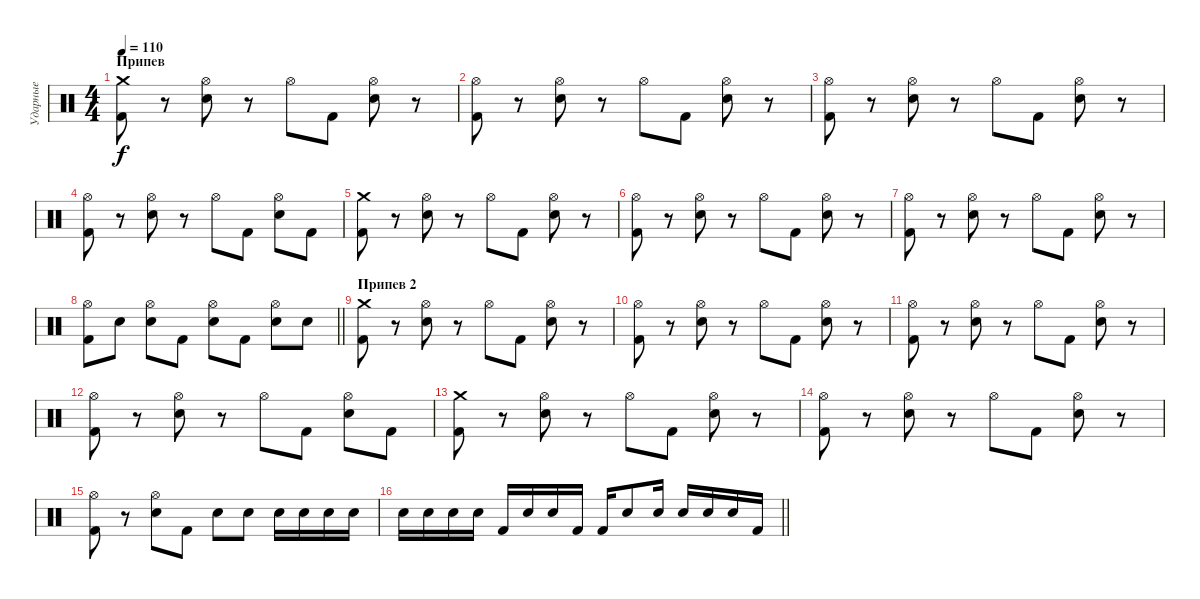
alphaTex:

\track ("Ударные" "Ударные") {instrument percussion}
\staff {score}
\articulation defaults
\ts (4 4)
\section ("" "Припев")
\tempo 110
\clef neutral
\ks c
("Crash medium (hit)" "Kick (hit) 2").8{dy f} r.8 ("Hi-Hat (open)" "Snare (hit) 2").8 r.8 "Hi-Hat (open)".8 "Kick (hit) 2".8 ("Hi-Hat (open)" "Snare (hit) 2").8 r.8 |
("Hi-Hat (open)" "Kick (hit) 2").8 r.8 ("Hi-Hat (open)" "Snare (hit) 2").8 r.8 "Hi-Hat (open)".8 "Kick (hit) 2".8 ("Hi-Hat (open)" "Snare (hit) 2").8 r.8 |
("Hi-Hat (open)" "Kick (hit) 2").8 r.8 ("Hi-Hat (open)" "Snare (hit) 2").8 r.8 "Hi-Hat (open)".8 "Kick (hit) 2".8 ("Hi-Hat (open)" "Snare (hit) 2").8 r.8 |
("Hi-Hat (open)" "Kick (hit) 2").8 r.8 ("Hi-Hat (open)" "Snare (hit) 2").8 r.8 "Hi-Hat (open)".8 "Kick (hit) 2".8 ("Hi-Hat (open)" "Snare (hit) 2").8 "Kick (hit) 2".8 |
("Crash medium (hit)" "Kick (hit) 2").8 r.8 ("Hi-Hat (open)" "Snare (hit) 2").8 r.8 "Hi-Hat (open)".8 "Kick (hit) 2".8 ("Hi-Hat (open)" "Snare (hit) 2").8 r.8 |
("Hi-Hat (open)" "Kick (hit) 2").8 r.8 ("Hi-Hat (open)" "Snare (hit) 2").8 r.8 "Hi-Hat (open)".8 "Kick (hit) 2".8 ("Hi-Hat (open)" "Snare (hit) 2").8 r.8 |
("Hi-Hat (open)" "Kick (hit) 2").8 r.8 ("Hi-Hat (open)" "Snare (hit) 2").8 r.8 "Hi-Hat (open)".8 "Kick (hit) 2".8 ("Hi-Hat (open)" "Snare (hit) 2").8 r.8 |
\barLineRight lightlight
("Hi-Hat (open)" "Kick (hit) 2").8 "Snare (hit) 2".8 ("Hi-Hat (open)" "Snare (hit) 2").8 "Kick (hit) 2".8 ("Hi-Hat (open)" "Snare (hit) 2").8 "Kick (hit) 2".8 ("Hi-Hat (open)" "Snare (hit) 2").8 "Snare (hit) 2".8 |
\section ("" "Припев 2")
("Crash medium (hit)" "Kick (hit) 2").8 r.8 ("Hi-Hat (open)" "Snare (hit) 2").8 r.8 "Hi-Hat (open)".8 "Kick (hit) 2".8 ("Hi-Hat (open)" "Snare (hit) 2").8 r.8 |
("Hi-Hat (open)" "Kick (hit) 2").8 r.8 ("Hi-Hat (open)" "Snare (hit) 2").8 r.8 "Hi-Hat (open)".8 "Kick (hit) 2".8 ("Hi-Hat (open)" "Snare (hit) 2").8 r.8 |
("Hi-Hat (open)" "Kick (hit) 2").8 r.8 ("Hi-Hat (open)" "Snare (hit) 2").8 r.8 "Hi-Hat (open)".8 "Kick (hit) 2".8 ("Hi-Hat (open)" "Snare (hit) 2").8 r.8 |
("Hi-Hat (open)" "Kick (hit) 2").8 r.8 ("Hi-Hat (open)" "Snare (hit) 2").8 r.8 "Hi-Hat (open)".8 "Kick (hit) 2".8 ("Hi-Hat (open)" "Snare (hit) 2").8 "Kick (hit) 2".8 |
("Crash medium (hit)" "Kick (hit) 2").8 r.8 ("Hi-Hat (open)" "Snare (hit) 2").8 r.8 "Hi-Hat (open)".8 "Kick (hit) 2".8 ("Hi-Hat (open)" "Snare (hit) 2").8 r.8 |
("Hi-Hat (open)" "Kick (hit) 2").8 r.8 ("Hi-Hat (open)" "Snare (hit) 2").8 r.8 "Hi-Hat (open)".8 "Kick (hit) 2".8 ("Hi-Hat (open)" "Snare (hit) 2").8 r.8 |
("Hi-Hat (open)" "Kick (hit) 2").8 r.8 ("Hi-Hat (open)" "Snare (hit) 2").8 "Kick (hit) 2".8 "Snare (hit) 2".8 "Snare (hit) 2".8 "Snare (hit) 2".16 "Snare (hit) 2".16 "Snare (hit) 2".16 "Snare (hit) 2".16 |
\barLineRight lightlight "Snare (hit) 2".16 "Snare (hit) 2".16 "Snare (hit) 2".16 "Snare (hit) 2".16 "Kick (hit) 2".16 "Snare (hit) 2".16 "Snare (hit) 2".16 "Kick (hit) 2".16 "Kick (hit) 2".16 "Snare (hit) 2".8 "Snare (hit) 2".16 "Snare (hit) 2".16 "Snare (hit) 2".16 "Snare (hit) 2".16 "Kick (hit) 2".16
